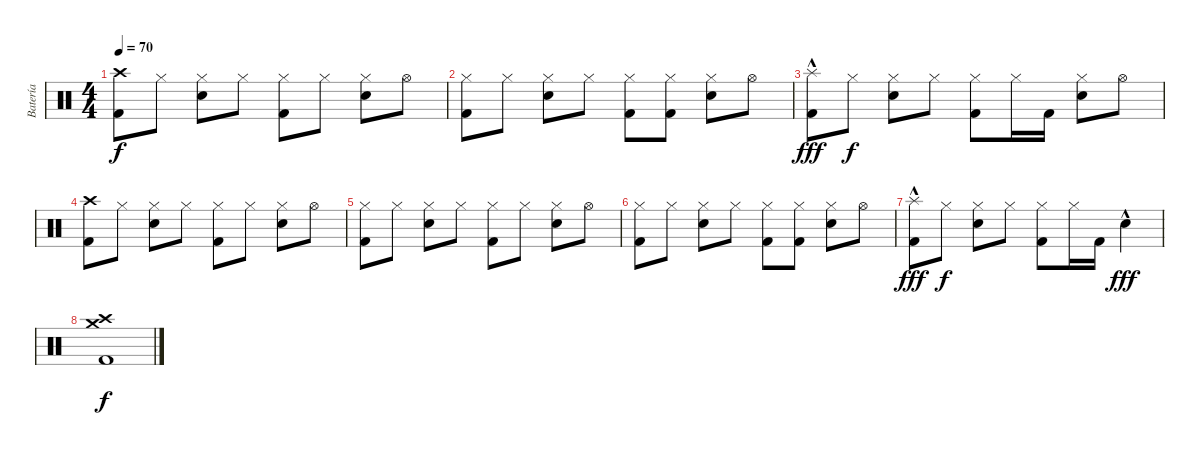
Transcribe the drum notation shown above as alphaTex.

\track ("Batería" "Batería") {instrument percussion}
\staff {score}
\articulation defaults
\ts (4 4)
\tempo 70
\clef neutral
\ks c
("Crash high (hit)" "Kick (hit) 2").8{dy f} "Hi-Hat (closed)".8 ("Snare (hit) 2" "Hi-Hat (closed)").8 "Hi-Hat (closed)".8 ("Hi-Hat (closed)" "Kick (hit) 2").8 "Hi-Hat (closed)".8 ("Hi-Hat (closed)" "Snare (hit) 2").8 "Hi-Hat (open)".8 |
("Hi-Hat (closed)" "Kick (hit) 2").8 "Hi-Hat (closed)".8 ("Snare (hit) 2" "Hi-Hat (closed)").8 "Hi-Hat (closed)".8 ("Hi-Hat (closed)" "Kick (hit) 2").8 ("Hi-Hat (closed)" "Kick (hit) 2").8 ("Hi-Hat (closed)" "Snare (hit) 2").8 "Hi-Hat (open)".8 |
("Splash (hit)"{hac} "Kick (hit) 2").8{dy fff} "Hi-Hat (closed)".8{dy f} ("Snare (hit) 2" "Hi-Hat (closed)").8 "Hi-Hat (closed)".8 ("Hi-Hat (closed)" "Kick (hit) 2").8 "Hi-Hat (closed)".16 "Kick (hit) 2".16 ("Hi-Hat (closed)" "Snare (hit) 2").8 "Hi-Hat (open)".8 |
("Crash high (hit)" "Kick (hit) 2").8 "Hi-Hat (closed)".8 ("Snare (hit) 2" "Hi-Hat (closed)").8 "Hi-Hat (closed)".8 ("Hi-Hat (closed)" "Kick (hit) 2").8 "Hi-Hat (closed)".8 ("Hi-Hat (closed)" "Snare (hit) 2").8 "Hi-Hat (open)".8 |
("Hi-Hat (closed)" "Kick (hit) 2").8 "Hi-Hat (closed)".8 ("Snare (hit) 2" "Hi-Hat (closed)").8 "Hi-Hat (closed)".8 ("Hi-Hat (closed)" "Kick (hit) 2").8 "Hi-Hat (closed)".8 ("Hi-Hat (closed)" "Snare (hit) 2").8 "Hi-Hat (open)".8 |
("Hi-Hat (closed)" "Kick (hit) 2").8 "Hi-Hat (closed)".8 ("Snare (hit) 2" "Hi-Hat (closed)").8 "Hi-Hat (closed)".8 ("Hi-Hat (closed)" "Kick (hit) 2").8 ("Hi-Hat (closed)" "Kick (hit) 2").8 ("Hi-Hat (closed)" "Snare (hit) 2").8 "Hi-Hat (open)".8 |
("Splash (hit)"{hac} "Kick (hit) 2").8{dy fff} "Hi-Hat (closed)".8{dy f} ("Snare (hit) 2" "Hi-Hat (closed)").8 "Hi-Hat (closed)".8 ("Hi-Hat (closed)" "Kick (hit) 2").8 "Hi-Hat (closed)".16 "Kick (hit) 2".16 "Snare (hit) 2"{hac}.4{dy fff} |
("Crash high (hit)" "Crash medium (hit)" "Kick (hit) 2").1{dy f}
